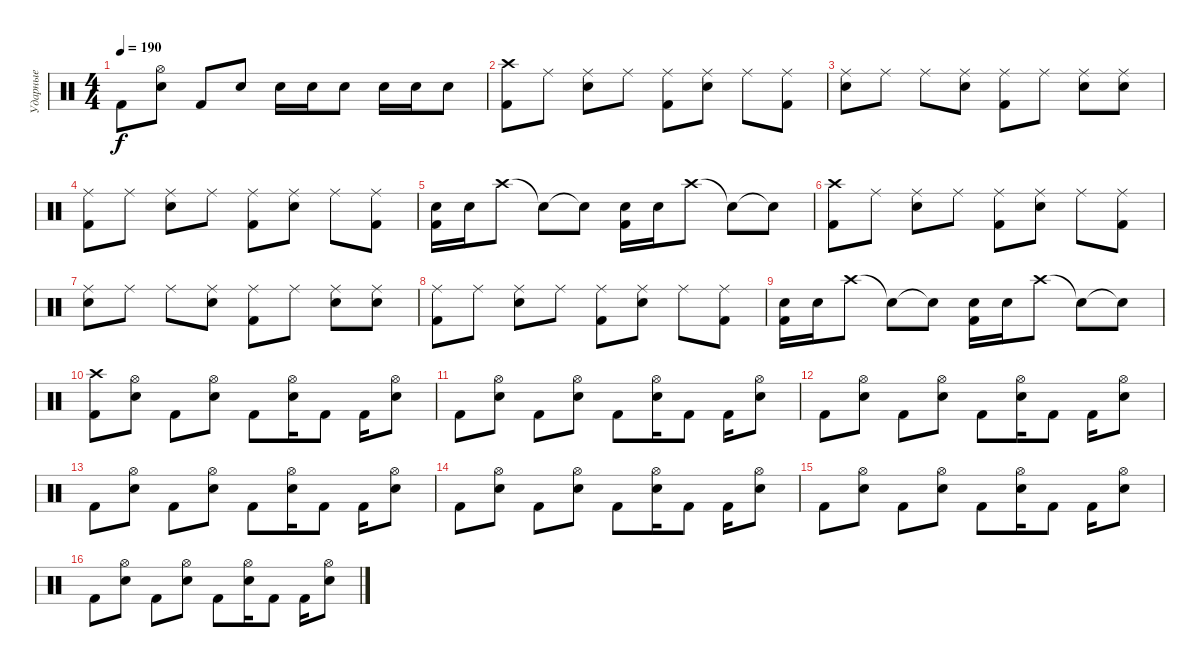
\track ("Ударные" "Ударные") {instrument percussion}
\staff {score}
\articulation defaults
\ts (4 4)
\tempo 190
\clef neutral
\ks c "Kick (hit) 2".8{dy f}
("Hi-Hat (open)" "Electric Snare (hit)").8 "Kick (hit) 2".8 "Electric Snare (hit)".8 "Electric Snare (hit)".16 "Electric Snare (hit)".16 "Electric Snare (hit)".8 "Electric Snare (hit)".16 "Electric Snare (hit)".16 "Electric Snare (hit)".8 |
("Crash high (hit)" "Kick (hit) 2").8 "Ride (middle)".8 ("Ride (middle)" "Electric Snare (hit)").8 "Ride (middle)".8 ("Ride (middle)" "Kick (hit) 2").8 ("Ride (middle)" "Electric Snare (hit)").8 "Ride (middle)".8 ("Ride (middle)" "Kick (hit) 2").8 |
("Ride (middle)" "Electric Snare (hit)").8 "Ride (middle)".8 "Ride (middle)".8 ("Ride (middle)" "Electric Snare (hit)").8 ("Ride (middle)" "Kick (hit) 2").8 "Ride (middle)".8 ("Ride (middle)" "Electric Snare (hit)").8 ("Ride (middle)" "Electric Snare (hit)").8 |
("Ride (middle)" "Kick (hit) 2").8 "Ride (middle)".8 ("Ride (middle)" "Electric Snare (hit)").8 "Ride (middle)".8 ("Ride (middle)" "Kick (hit) 2").8 ("Ride (middle)" "Electric Snare (hit)").8 "Ride (middle)".8 ("Ride (middle)" "Kick (hit) 2").8 |
("Electric Snare (hit)" "Kick (hit) 2").16 "Electric Snare (hit)".16 "Crash high (hit)".8 "Snare (hit)"{t}.8 "Snare (hit)"{t}.8 ("Electric Snare (hit)" "Kick (hit) 2").16 "Electric Snare (hit)".16 "Crash high (hit)".8 "Snare (hit)"{t}.8 "Snare (hit)"{t}.8 |
("Crash high (hit)" "Kick (hit) 2").8 "Ride (middle)".8 ("Ride (middle)" "Electric Snare (hit)").8 "Ride (middle)".8 ("Ride (middle)" "Kick (hit) 2").8 ("Ride (middle)" "Electric Snare (hit)").8 "Ride (middle)".8 ("Ride (middle)" "Kick (hit) 2").8 |
("Ride (middle)" "Electric Snare (hit)").8 "Ride (middle)".8 "Ride (middle)".8 ("Ride (middle)" "Electric Snare (hit)").8 ("Ride (middle)" "Kick (hit) 2").8 "Ride (middle)".8 ("Ride (middle)" "Electric Snare (hit)").8 ("Ride (middle)" "Electric Snare (hit)").8 |
("Ride (middle)" "Kick (hit) 2").8 "Ride (middle)".8 ("Ride (middle)" "Electric Snare (hit)").8 "Ride (middle)".8 ("Ride (middle)" "Kick (hit) 2").8 ("Ride (middle)" "Electric Snare (hit)").8 "Ride (middle)".8 ("Ride (middle)" "Kick (hit) 2").8 |
("Electric Snare (hit)" "Kick (hit) 2").16 "Electric Snare (hit)".16 "Crash high (hit)".8 "Snare (hit)"{t}.8 "Snare (hit)"{t}.8 ("Electric Snare (hit)" "Kick (hit) 2").16 "Electric Snare (hit)".16 "Crash high (hit)".8 "Snare (hit)"{t}.8 "Snare (hit)"{t}.8 |
("Crash high (hit)" "Kick (hit) 2").8 ("Hi-Hat (open)" "Electric Snare (hit)").8 "Kick (hit) 2".8 ("Hi-Hat (open)" "Electric Snare (hit)").8 "Kick (hit) 2".8 ("Hi-Hat (open)" "Electric Snare (hit)").16 "Kick (hit) 2".8 "Kick (hit) 2".16 ("Hi-Hat (open)" "Electric Snare (hit)").8 |
"Kick (hit) 2".8 ("Hi-Hat (open)" "Electric Snare (hit)").8 "Kick (hit) 2".8 ("Hi-Hat (open)" "Electric Snare (hit)").8 "Kick (hit) 2".8 ("Hi-Hat (open)" "Electric Snare (hit)").16 "Kick (hit) 2".8 "Kick (hit) 2".16 ("Hi-Hat (open)" "Electric Snare (hit)").8 |
"Kick (hit) 2".8 ("Hi-Hat (open)" "Electric Snare (hit)").8 "Kick (hit) 2".8 ("Hi-Hat (open)" "Electric Snare (hit)").8 "Kick (hit) 2".8 ("Hi-Hat (open)" "Electric Snare (hit)").16 "Kick (hit) 2".8 "Kick (hit) 2".16 ("Hi-Hat (open)" "Electric Snare (hit)").8 |
"Kick (hit) 2".8 ("Hi-Hat (open)" "Electric Snare (hit)").8 "Kick (hit) 2".8 ("Hi-Hat (open)" "Electric Snare (hit)").8 "Kick (hit) 2".8 ("Hi-Hat (open)" "Electric Snare (hit)").16 "Kick (hit) 2".8 "Kick (hit) 2".16 ("Hi-Hat (open)" "Electric Snare (hit)").8 |
"Kick (hit) 2".8 ("Hi-Hat (open)" "Electric Snare (hit)").8 "Kick (hit) 2".8 ("Hi-Hat (open)" "Electric Snare (hit)").8 "Kick (hit) 2".8 ("Hi-Hat (open)" "Electric Snare (hit)").16 "Kick (hit) 2".8 "Kick (hit) 2".16 ("Hi-Hat (open)" "Electric Snare (hit)").8 |
"Kick (hit) 2".8 ("Hi-Hat (open)" "Electric Snare (hit)").8 "Kick (hit) 2".8 ("Hi-Hat (open)" "Electric Snare (hit)").8 "Kick (hit) 2".8 ("Hi-Hat (open)" "Electric Snare (hit)").16 "Kick (hit) 2".8 "Kick (hit) 2".16 ("Hi-Hat (open)" "Electric Snare (hit)").8 |
"Kick (hit) 2".8 ("Hi-Hat (open)" "Electric Snare (hit)").8 "Kick (hit) 2".8 ("Hi-Hat (open)" "Electric Snare (hit)").8 "Kick (hit) 2".8 ("Hi-Hat (open)" "Electric Snare (hit)").16 "Kick (hit) 2".8 "Kick (hit) 2".16 ("Hi-Hat (open)" "Electric Snare (hit)").8
